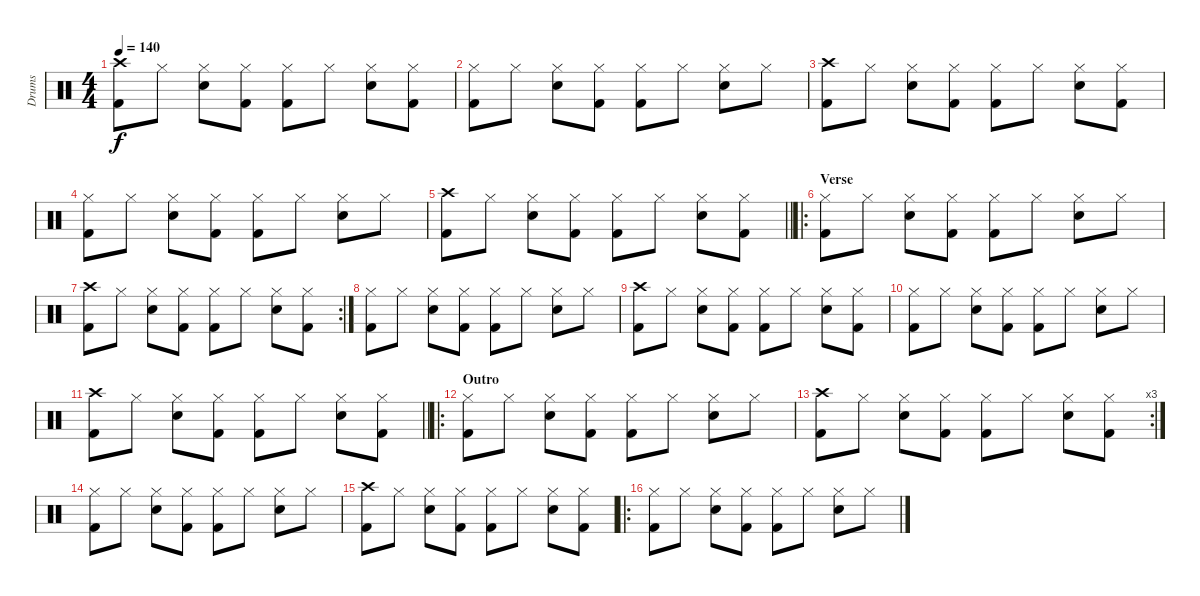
\track ("Drums" "Drums") {instrument percussion}
\staff {score}
\articulation defaults
\ts (4 4)
\tempo 140
\clef neutral
\ks c
("Kick (hit) 2" "Crash high (hit)").8{dy f} "Hi-Hat (closed)".8 ("Hi-Hat (closed)" "Electric Snare (hit)").8 ("Kick (hit) 2" "Hi-Hat (closed)").8 ("Kick (hit) 2" "Hi-Hat (closed)").8 "Hi-Hat (closed)".8 ("Hi-Hat (closed)" "Electric Snare (hit)").8 ("Kick (hit) 2" "Hi-Hat (closed)").8 |
("Kick (hit) 2" "Hi-Hat (closed)").8 "Hi-Hat (closed)".8 ("Hi-Hat (closed)" "Electric Snare (hit)").8 ("Kick (hit) 2" "Hi-Hat (closed)").8 ("Kick (hit) 2" "Hi-Hat (closed)").8 "Hi-Hat (closed)".8 ("Hi-Hat (closed)" "Electric Snare (hit)").8 "Hi-Hat (closed)".8 |
("Kick (hit) 2" "Crash high (hit)").8 "Hi-Hat (closed)".8 ("Hi-Hat (closed)" "Electric Snare (hit)").8 ("Kick (hit) 2" "Hi-Hat (closed)").8 ("Kick (hit) 2" "Hi-Hat (closed)").8 "Hi-Hat (closed)".8 ("Hi-Hat (closed)" "Electric Snare (hit)").8 ("Kick (hit) 2" "Hi-Hat (closed)").8 |
("Kick (hit) 2" "Hi-Hat (closed)").8 "Hi-Hat (closed)".8 ("Hi-Hat (closed)" "Electric Snare (hit)").8 ("Kick (hit) 2" "Hi-Hat (closed)").8 ("Kick (hit) 2" "Hi-Hat (closed)").8 "Hi-Hat (closed)".8 ("Hi-Hat (closed)" "Electric Snare (hit)").8 "Hi-Hat (closed)".8 |
\barLineRight lightlight
("Kick (hit) 2" "Crash high (hit)").8 "Hi-Hat (closed)".8 ("Hi-Hat (closed)" "Electric Snare (hit)").8 ("Kick (hit) 2" "Hi-Hat (closed)").8 ("Kick (hit) 2" "Hi-Hat (closed)").8 "Hi-Hat (closed)".8 ("Hi-Hat (closed)" "Electric Snare (hit)").8 ("Kick (hit) 2" "Hi-Hat (closed)").8 |
\ro
\section ("" "Verse")
("Kick (hit) 2" "Hi-Hat (closed)").8 "Hi-Hat (closed)".8 ("Hi-Hat (closed)" "Electric Snare (hit)").8 ("Kick (hit) 2" "Hi-Hat (closed)").8 ("Kick (hit) 2" "Hi-Hat (closed)").8 "Hi-Hat (closed)".8 ("Hi-Hat (closed)" "Electric Snare (hit)").8 "Hi-Hat (closed)".8 |
\rc 2
("Kick (hit) 2" "Crash high (hit)").8 "Hi-Hat (closed)".8 ("Hi-Hat (closed)" "Electric Snare (hit)").8 ("Kick (hit) 2" "Hi-Hat (closed)").8 ("Kick (hit) 2" "Hi-Hat (closed)").8 "Hi-Hat (closed)".8 ("Hi-Hat (closed)" "Electric Snare (hit)").8 ("Kick (hit) 2" "Hi-Hat (closed)").8 |
("Kick (hit) 2" "Hi-Hat (closed)").8 "Hi-Hat (closed)".8 ("Hi-Hat (closed)" "Electric Snare (hit)").8 ("Kick (hit) 2" "Hi-Hat (closed)").8 ("Kick (hit) 2" "Hi-Hat (closed)").8 "Hi-Hat (closed)".8 ("Hi-Hat (closed)" "Electric Snare (hit)").8 "Hi-Hat (closed)".8 |
("Kick (hit) 2" "Crash high (hit)").8 "Hi-Hat (closed)".8 ("Hi-Hat (closed)" "Electric Snare (hit)").8 ("Kick (hit) 2" "Hi-Hat (closed)").8 ("Kick (hit) 2" "Hi-Hat (closed)").8 "Hi-Hat (closed)".8 ("Hi-Hat (closed)" "Electric Snare (hit)").8 ("Kick (hit) 2" "Hi-Hat (closed)").8 |
("Kick (hit) 2" "Hi-Hat (closed)").8 "Hi-Hat (closed)".8 ("Hi-Hat (closed)" "Electric Snare (hit)").8 ("Kick (hit) 2" "Hi-Hat (closed)").8 ("Kick (hit) 2" "Hi-Hat (closed)").8 "Hi-Hat (closed)".8 ("Hi-Hat (closed)" "Electric Snare (hit)").8 "Hi-Hat (closed)".8 |
\barLineRight lightlight
("Kick (hit) 2" "Crash high (hit)").8 "Hi-Hat (closed)".8 ("Hi-Hat (closed)" "Electric Snare (hit)").8 ("Kick (hit) 2" "Hi-Hat (closed)").8 ("Kick (hit) 2" "Hi-Hat (closed)").8 "Hi-Hat (closed)".8 ("Hi-Hat (closed)" "Electric Snare (hit)").8 ("Kick (hit) 2" "Hi-Hat (closed)").8 |
\ro
\section ("" "Outro")
("Kick (hit) 2" "Hi-Hat (closed)").8 "Hi-Hat (closed)".8 ("Hi-Hat (closed)" "Electric Snare (hit)").8 ("Kick (hit) 2" "Hi-Hat (closed)").8 ("Kick (hit) 2" "Hi-Hat (closed)").8 "Hi-Hat (closed)".8 ("Hi-Hat (closed)" "Electric Snare (hit)").8 "Hi-Hat (closed)".8 |
\rc 3
("Kick (hit) 2" "Crash high (hit)").8 "Hi-Hat (closed)".8 ("Hi-Hat (closed)" "Electric Snare (hit)").8 ("Kick (hit) 2" "Hi-Hat (closed)").8 ("Kick (hit) 2" "Hi-Hat (closed)").8 "Hi-Hat (closed)".8 ("Hi-Hat (closed)" "Electric Snare (hit)").8 ("Kick (hit) 2" "Hi-Hat (closed)").8 |
("Kick (hit) 2" "Hi-Hat (closed)").8 "Hi-Hat (closed)".8 ("Hi-Hat (closed)" "Electric Snare (hit)").8 ("Kick (hit) 2" "Hi-Hat (closed)").8 ("Kick (hit) 2" "Hi-Hat (closed)").8 "Hi-Hat (closed)".8 ("Hi-Hat (closed)" "Electric Snare (hit)").8 "Hi-Hat (closed)".8 |
("Kick (hit) 2" "Crash high (hit)").8 "Hi-Hat (closed)".8 ("Hi-Hat (closed)" "Electric Snare (hit)").8 ("Kick (hit) 2" "Hi-Hat (closed)").8 ("Kick (hit) 2" "Hi-Hat (closed)").8 "Hi-Hat (closed)".8 ("Hi-Hat (closed)" "Electric Snare (hit)").8 ("Kick (hit) 2" "Hi-Hat (closed)").8 |
\ro
("Kick (hit) 2" "Hi-Hat (closed)").8 "Hi-Hat (closed)".8 ("Hi-Hat (closed)" "Electric Snare (hit)").8 ("Kick (hit) 2" "Hi-Hat (closed)").8 ("Kick (hit) 2" "Hi-Hat (closed)").8 "Hi-Hat (closed)".8 ("Hi-Hat (closed)" "Electric Snare (hit)").8 "Hi-Hat (closed)".8
